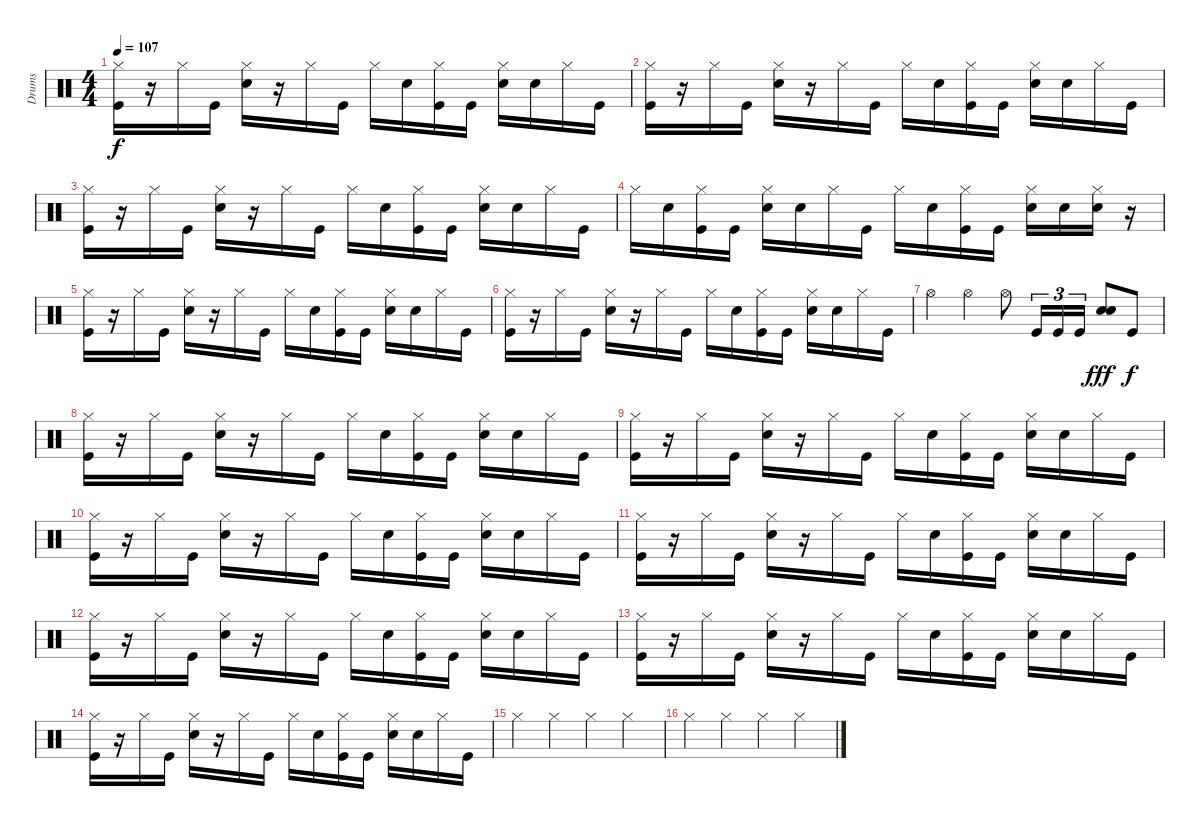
\track ("Drums" "Drums") {instrument percussion}
\staff {score}
\articulation defaults
\ts (4 4)
\tempo 107
\clef neutral
\ks c
("Hi-Hat (closed)" "Kick (hit)").16{dy f} r.16 "Hi-Hat (closed)".16 "Kick (hit)".16 ("Hi-Hat (closed)" "Snare (hit) 2").16 r.16 "Hi-Hat (closed)".16 "Kick (hit)".16 "Hi-Hat (closed)".16 "Snare (hit) 2".16 ("Hi-Hat (closed)" "Kick (hit)").16 "Kick (hit)".16 ("Hi-Hat (closed)" "Snare (hit) 2").16 "Snare (hit) 2".16 "Hi-Hat (closed)".16 "Kick (hit)".16 |
("Hi-Hat (closed)" "Kick (hit)").16 r.16 "Hi-Hat (closed)".16 "Kick (hit)".16 ("Hi-Hat (closed)" "Snare (hit) 2").16 r.16 "Hi-Hat (closed)".16 "Kick (hit)".16 "Hi-Hat (closed)".16 "Snare (hit) 2".16 ("Hi-Hat (closed)" "Kick (hit)").16 "Kick (hit)".16 ("Hi-Hat (closed)" "Snare (hit) 2").16 "Snare (hit) 2".16 "Hi-Hat (closed)".16 "Kick (hit)".16 |
("Hi-Hat (closed)" "Kick (hit)").16 r.16 "Hi-Hat (closed)".16 "Kick (hit)".16 ("Hi-Hat (closed)" "Snare (hit) 2").16 r.16 "Hi-Hat (closed)".16 "Kick (hit)".16 "Hi-Hat (closed)".16 "Snare (hit) 2".16 ("Hi-Hat (closed)" "Kick (hit)").16 "Kick (hit)".16 ("Hi-Hat (closed)" "Snare (hit) 2").16 "Snare (hit) 2".16 "Hi-Hat (closed)".16 "Kick (hit)".16 |
"Hi-Hat (closed)".16 "Snare (hit) 2".16 ("Hi-Hat (closed)" "Kick (hit)").16 "Kick (hit)".16 ("Hi-Hat (closed)" "Snare (hit) 2").16 "Snare (hit) 2".16 "Hi-Hat (closed)".16 "Kick (hit)".16 "Hi-Hat (closed)".16 "Snare (hit) 2".16 ("Hi-Hat (closed)" "Kick (hit)").16 "Kick (hit)".16 ("Hi-Hat (closed)" "Snare (hit) 2").16 "Snare (hit) 2".16 ("Hi-Hat (closed)" "Snare (hit) 2").16 r.16 |
("Hi-Hat (closed)" "Kick (hit)").16 r.16 "Hi-Hat (closed)".16 "Kick (hit)".16 ("Hi-Hat (closed)" "Snare (hit) 2").16 r.16 "Hi-Hat (closed)".16 "Kick (hit)".16 "Hi-Hat (closed)".16 "Snare (hit) 2".16 ("Hi-Hat (closed)" "Kick (hit)").16 "Kick (hit)".16 ("Hi-Hat (closed)" "Snare (hit) 2").16 "Snare (hit) 2".16 "Hi-Hat (closed)".16 "Kick (hit)".16 |
("Hi-Hat (closed)" "Kick (hit)").16 r.16 "Hi-Hat (closed)".16 "Kick (hit)".16 ("Hi-Hat (closed)" "Snare (hit) 2").16 r.16 "Hi-Hat (closed)".16 "Kick (hit)".16 "Hi-Hat (closed)".16 "Snare (hit) 2".16 ("Hi-Hat (closed)" "Kick (hit)").16 "Kick (hit)".16 ("Hi-Hat (closed)" "Snare (hit) 2").16 "Snare (hit) 2".16 "Hi-Hat (closed)".16 "Kick (hit)".16 |
"Hi-Hat (open)".4 "Hi-Hat (open)".4 "Hi-Hat (open)".8 "Kick (hit)".16{tu (3 2)} "Kick (hit)".16{tu (3 2)} "Kick (hit)".16{tu (3 2)} ("Snare (hit) 2" "Snare (hit) 2").8{dy fff} "Kick (hit)".8{dy f} |
("Hi-Hat (closed)" "Kick (hit)").16 r.16 "Hi-Hat (closed)".16 "Kick (hit)".16 ("Hi-Hat (closed)" "Snare (hit) 2").16 r.16 "Hi-Hat (closed)".16 "Kick (hit)".16 "Hi-Hat (closed)".16 "Snare (hit) 2".16 ("Hi-Hat (closed)" "Kick (hit)").16 "Kick (hit)".16 ("Hi-Hat (closed)" "Snare (hit) 2").16 "Snare (hit) 2".16 "Hi-Hat (closed)".16 "Kick (hit)".16 |
("Hi-Hat (closed)" "Kick (hit)").16 r.16 "Hi-Hat (closed)".16 "Kick (hit)".16 ("Hi-Hat (closed)" "Snare (hit) 2").16 r.16 "Hi-Hat (closed)".16 "Kick (hit)".16 "Hi-Hat (closed)".16 "Snare (hit) 2".16 ("Hi-Hat (closed)" "Kick (hit)").16 "Kick (hit)".16 ("Hi-Hat (closed)" "Snare (hit) 2").16 "Snare (hit) 2".16 "Hi-Hat (closed)".16 "Kick (hit)".16 |
("Hi-Hat (closed)" "Kick (hit)").16 r.16 "Hi-Hat (closed)".16 "Kick (hit)".16 ("Hi-Hat (closed)" "Snare (hit) 2").16 r.16 "Hi-Hat (closed)".16 "Kick (hit)".16 "Hi-Hat (closed)".16 "Snare (hit) 2".16 ("Hi-Hat (closed)" "Kick (hit)").16 "Kick (hit)".16 ("Hi-Hat (closed)" "Snare (hit) 2").16 "Snare (hit) 2".16 "Hi-Hat (closed)".16 "Kick (hit)".16 |
("Hi-Hat (closed)" "Kick (hit)").16 r.16 "Hi-Hat (closed)".16 "Kick (hit)".16 ("Hi-Hat (closed)" "Snare (hit) 2").16 r.16 "Hi-Hat (closed)".16 "Kick (hit)".16 "Hi-Hat (closed)".16 "Snare (hit) 2".16 ("Hi-Hat (closed)" "Kick (hit)").16 "Kick (hit)".16 ("Hi-Hat (closed)" "Snare (hit) 2").16 "Snare (hit) 2".16 "Hi-Hat (closed)".16 "Kick (hit)".16 |
("Hi-Hat (closed)" "Kick (hit)").16 r.16 "Hi-Hat (closed)".16 "Kick (hit)".16 ("Hi-Hat (closed)" "Snare (hit) 2").16 r.16 "Hi-Hat (closed)".16 "Kick (hit)".16 "Hi-Hat (closed)".16 "Snare (hit) 2".16 ("Hi-Hat (closed)" "Kick (hit)").16 "Kick (hit)".16 ("Hi-Hat (closed)" "Snare (hit) 2").16 "Snare (hit) 2".16 "Hi-Hat (closed)".16 "Kick (hit)".16 |
("Hi-Hat (closed)" "Kick (hit)").16 r.16 "Hi-Hat (closed)".16 "Kick (hit)".16 ("Hi-Hat (closed)" "Snare (hit) 2").16 r.16 "Hi-Hat (closed)".16 "Kick (hit)".16 "Hi-Hat (closed)".16 "Snare (hit) 2".16 ("Hi-Hat (closed)" "Kick (hit)").16 "Kick (hit)".16 ("Hi-Hat (closed)" "Snare (hit) 2").16 "Snare (hit) 2".16 "Hi-Hat (closed)".16 "Kick (hit)".16 |
("Hi-Hat (closed)" "Kick (hit)").16 r.16 "Hi-Hat (closed)".16 "Kick (hit)".16 ("Hi-Hat (closed)" "Snare (hit) 2").16 r.16 "Hi-Hat (closed)".16 "Kick (hit)".16 "Hi-Hat (closed)".16 "Snare (hit) 2".16 ("Hi-Hat (closed)" "Kick (hit)").16 "Kick (hit)".16 ("Hi-Hat (closed)" "Snare (hit) 2").16 "Snare (hit) 2".16 "Hi-Hat (closed)".16 "Kick (hit)".16 |
"Hi-Hat (closed)".4 "Hi-Hat (closed)".4 "Hi-Hat (closed)".4 "Hi-Hat (closed)".4 |
"Hi-Hat (closed)".4 "Hi-Hat (closed)".4 "Hi-Hat (closed)".4 "Hi-Hat (closed)".4
